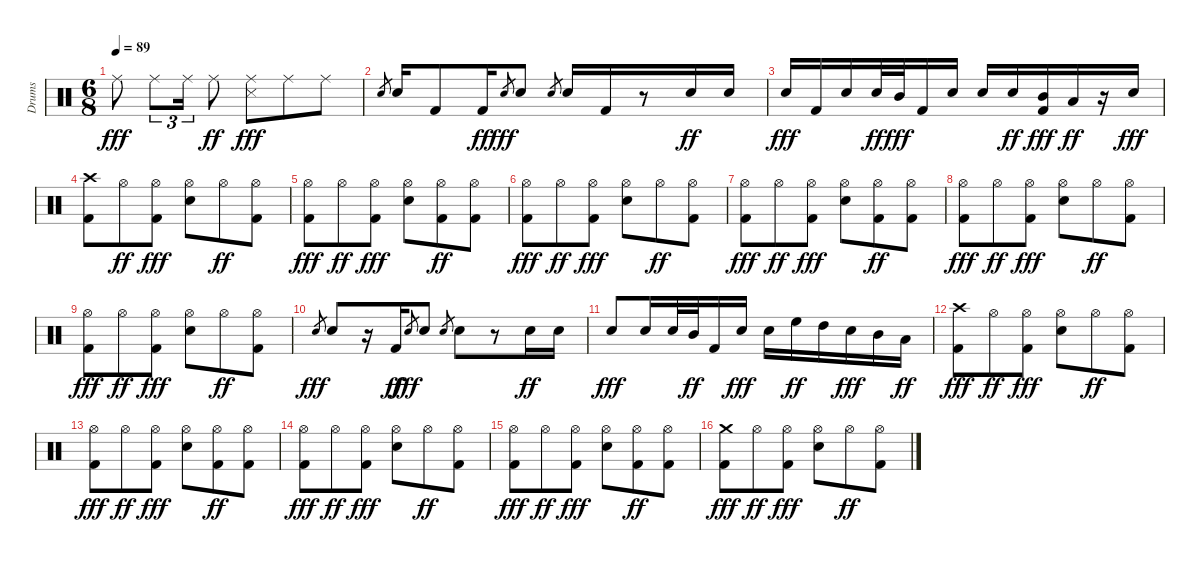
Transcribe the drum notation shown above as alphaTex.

\track ("Drums" "Drums") {instrument percussion}
\staff {score}
\articulation defaults
\ts (6 8)
\tempo 89
\clef neutral
\ks c "Ride (middle)".8{dy fff} "Ride (middle)".8{tu (3 2)} "Ride (middle)".16{tu (3 2)} "Ride (middle)".8{dy ff}
("Ride (middle)" "Snare (side stick) 3").8{dy fff} "Ride (middle)".8 "Ride (middle)".8 |
"Snare (hit) 2".8{gr} "Snare (hit) 2".16 "Kick (hit) 2".8 "Kick (hit) 2".16{dy ff} "Snare (hit) 2".8{gr dy fff} "Snare (hit) 2".8 "Snare (hit) 2".8{gr} "Snare (hit) 2".16 "Kick (hit) 2".16 r.8 "Electric Snare (hit)".16{dy ff} "Electric Snare (hit)".16 |
"Snare (hit) 2".16{dy fff} "Kick (hit) 2".16 "Electric Snare (hit)".16 "Electric Snare (hit)".32{dy ff} "Mid Tom (hit)".32{dy fff} "Kick (hit) 2".16 "Electric Snare (hit)".16 "Snare (hit) 2".16 "Snare (hit) 2".16{dy ff} ("Mid Tom (hit)" "Kick (hit) 2").16{dy fff} "Low Tom (hit)".16{dy ff} r.16 "Snare (hit) 2".16{dy fff} |
("Kick (hit) 2" "Crash high (hit)").8 "Hi-Hat (open)".8{dy ff} ("Hi-Hat (open)" "Kick (hit) 2").8{dy fff} ("Hi-Hat (open)" "Snare (hit) 2").8 "Hi-Hat (open)".8{dy ff} ("Hi-Hat (open)" "Kick (hit) 2").8 |
("Hi-Hat (open)" "Kick (hit) 2").8{dy fff} "Hi-Hat (open)".8{dy ff} ("Hi-Hat (open)" "Kick (hit) 2").8{dy fff} ("Hi-Hat (open)" "Snare (hit) 2").8 ("Hi-Hat (open)" "Kick (hit) 2").8{dy ff} ("Hi-Hat (open)" "Kick (hit) 2").8 |
("Hi-Hat (open)" "Kick (hit) 2").8{dy fff} "Hi-Hat (open)".8{dy ff} ("Hi-Hat (open)" "Kick (hit) 2").8{dy fff} ("Hi-Hat (open)" "Snare (hit) 2").8 "Hi-Hat (open)".8{dy ff} ("Hi-Hat (open)" "Kick (hit) 2").8 |
("Hi-Hat (open)" "Kick (hit) 2").8{dy fff} "Hi-Hat (open)".8{dy ff} ("Hi-Hat (open)" "Kick (hit) 2").8{dy fff} ("Hi-Hat (open)" "Snare (hit) 2").8 ("Hi-Hat (open)" "Kick (hit) 2").8{dy ff} ("Hi-Hat (open)" "Kick (hit) 2").8 |
("Hi-Hat (open)" "Kick (hit) 2").8{dy fff} "Hi-Hat (open)".8{dy ff} ("Hi-Hat (open)" "Kick (hit) 2").8{dy fff} ("Hi-Hat (open)" "Snare (hit) 2").8 "Hi-Hat (open)".8{dy ff} ("Hi-Hat (open)" "Kick (hit) 2").8 |
("Hi-Hat (open)" "Kick (hit) 2").8{dy fff} "Hi-Hat (open)".8{dy ff} ("Hi-Hat (open)" "Kick (hit) 2").8{dy fff} ("Hi-Hat (open)" "Snare (hit) 2").8 "Hi-Hat (open)".8{dy ff} ("Hi-Hat (open)" "Kick (hit) 2").8 |
"Snare (hit) 2".8{gr dy fff} "Snare (hit) 2".8 r.16 "Kick (hit) 2".16{dy ff} "Snare (hit) 2".8{gr dy fff} "Snare (hit) 2".8 "Snare (hit) 2".8{gr} "Snare (hit) 2".8 r.8 "Snare (hit) 2".16{dy ff} "Snare (hit) 2".16 |
"Snare (hit) 2".8{dy fff} "Snare (hit) 2".16 "Snare (hit) 2".32 "Mid Tom (hit)".32{dy ff} "Kick (hit) 2".16 "Electric Snare (hit)".16{dy fff} "Snare (hit) 2".16 "High Floor Tom (hit)".16{dy ff} "High Tom (hit)".16 "Snare (hit) 2".16{dy fff} "Mid Tom (hit)".16 "Low Tom (hit)".16{dy ff} |
("Kick (hit) 2" "Crash high (hit)").8{dy fff} "Hi-Hat (open)".8{dy ff} ("Hi-Hat (open)" "Kick (hit) 2").8{dy fff} ("Hi-Hat (open)" "Snare (hit) 2").8 "Hi-Hat (open)".8{dy ff} ("Hi-Hat (open)" "Kick (hit) 2").8 |
("Hi-Hat (open)" "Kick (hit) 2").8{dy fff} "Hi-Hat (open)".8{dy ff} ("Hi-Hat (open)" "Kick (hit) 2").8{dy fff} ("Hi-Hat (open)" "Snare (hit) 2").8 ("Hi-Hat (open)" "Kick (hit) 2").8{dy ff} ("Hi-Hat (open)" "Kick (hit) 2").8 |
("Hi-Hat (open)" "Kick (hit) 2").8{dy fff} "Hi-Hat (open)".8{dy ff} ("Hi-Hat (open)" "Kick (hit) 2").8{dy fff} ("Hi-Hat (open)" "Snare (hit) 2").8 "Hi-Hat (open)".8{dy ff} ("Hi-Hat (open)" "Kick (hit) 2").8 |
("Hi-Hat (open)" "Kick (hit) 2").8{dy fff} "Hi-Hat (open)".8{dy ff} ("Hi-Hat (open)" "Kick (hit) 2").8{dy fff} ("Hi-Hat (open)" "Snare (hit) 2").8 ("Hi-Hat (open)" "Kick (hit) 2").8{dy ff} ("Hi-Hat (open)" "Kick (hit) 2").8 |
("Kick (hit) 2" "Crash medium (hit)").8{dy fff} "Hi-Hat (open)".8{dy ff} ("Hi-Hat (open)" "Kick (hit) 2").8{dy fff} ("Hi-Hat (open)" "Snare (hit) 2").8 "Hi-Hat (open)".8{dy ff} ("Hi-Hat (open)" "Kick (hit) 2").8
